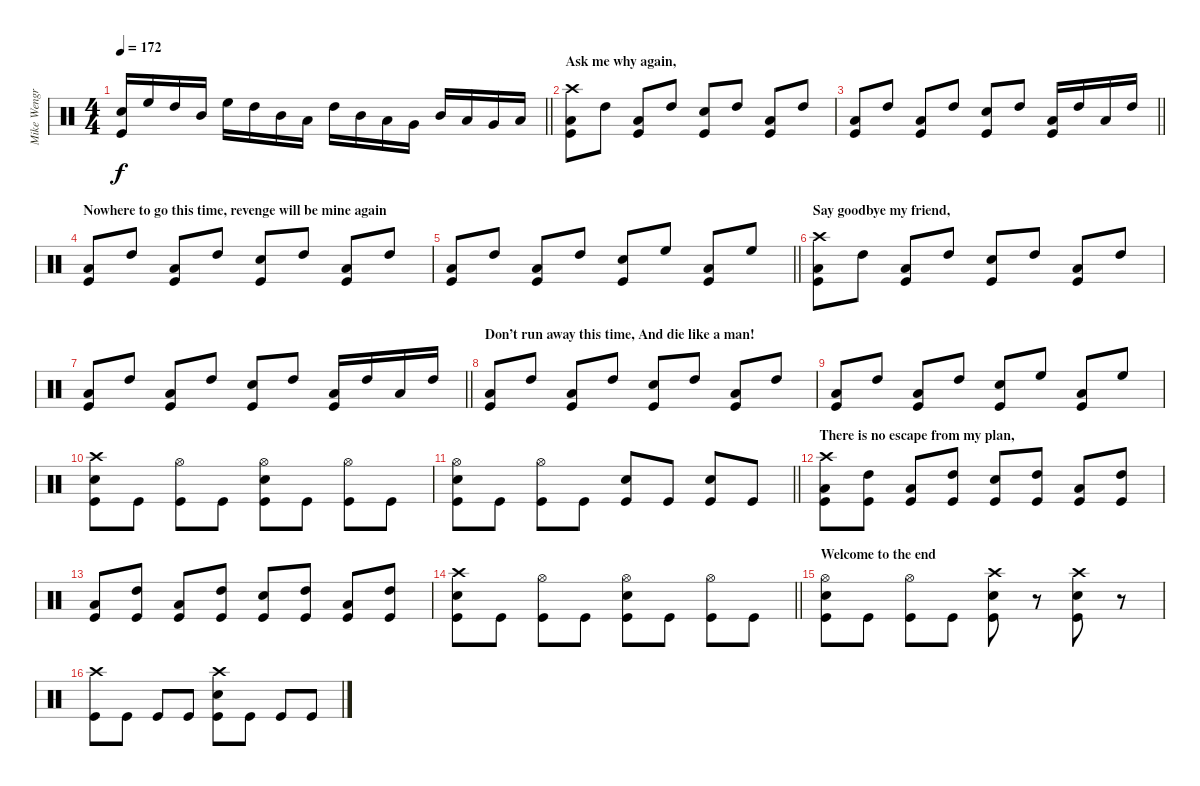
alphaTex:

\track ("Mike Wengren - Drums" "Mike Wengr") {instrument percussion}
\staff {score}
\articulation defaults
\ts (4 4)
\tempo 172
\clef neutral
\barLineRight lightlight
\ks c
("Snare (hit) 2" "Kick (hit)").16{dy f} "High Floor Tom (hit)".16 "High Tom (hit)".16 "Mid Tom (hit)".16 "High Floor Tom (hit)".16 "High Tom (hit)".16 "Mid Tom (hit)".16 "Low Tom (hit)".16 "High Tom (hit)".16 "Mid Tom (hit)".16 "Low Tom (hit)".16 "Very Low Tom (hit)".16 "Mid Tom (hit)".16 "Low Tom (hit)".16 "Very Low Tom (hit)".16 "Low Floor Tom (hit)".16 |
\section ("" "Ask me why again,")
("Crash high (hit)" "Low Tom (hit)" "Kick (hit)").8 "High Tom (hit)".8 ("Low Tom (hit)" "Kick (hit)").8 "High Tom (hit)".8 ("Snare (hit) 2" "Kick (hit)").8 "High Tom (hit)".8 ("Low Tom (hit)" "Kick (hit)").8 "High Tom (hit)".8 |
\barLineRight lightlight
("Low Tom (hit)" "Kick (hit)").8 "High Tom (hit)".8 ("Low Tom (hit)" "Kick (hit)").8 "High Tom (hit)".8 ("Snare (hit) 2" "Kick (hit)").8 "High Tom (hit)".8 ("Low Tom (hit)" "Kick (hit)").16 "High Tom (hit)".16 "Low Tom (hit)".16 "High Tom (hit)".16 |
\section ("" "Nowhere to go this time, revenge will be mine again")
("Low Tom (hit)" "Kick (hit)").8 "High Tom (hit)".8 ("Low Tom (hit)" "Kick (hit)").8 "High Tom (hit)".8 ("Snare (hit) 2" "Kick (hit)").8 "High Tom (hit)".8 ("Low Tom (hit)" "Kick (hit)").8 "High Tom (hit)".8 |
\barLineRight lightlight
("Low Tom (hit)" "Kick (hit)").8 "High Tom (hit)".8 ("Low Tom (hit)" "Kick (hit)").8 "High Tom (hit)".8 ("Snare (hit) 2" "Kick (hit)").8 "High Floor Tom (hit)".8 ("Low Tom (hit)" "Kick (hit)").8 "High Floor Tom (hit)".8 |
\section ("" "Say goodbye my friend,")
("Crash high (hit)" "Low Tom (hit)" "Kick (hit)").8 "High Tom (hit)".8 ("Low Tom (hit)" "Kick (hit)").8 "High Tom (hit)".8 ("Snare (hit) 2" "Kick (hit)").8 "High Tom (hit)".8 ("Low Tom (hit)" "Kick (hit)").8 "High Tom (hit)".8 |
\barLineRight lightlight
("Low Tom (hit)" "Kick (hit)").8 "High Tom (hit)".8 ("Low Tom (hit)" "Kick (hit)").8 "High Tom (hit)".8 ("Snare (hit) 2" "Kick (hit)").8 "High Tom (hit)".8 ("Low Tom (hit)" "Kick (hit)").16 "High Tom (hit)".16 "Low Tom (hit)".16 "High Tom (hit)".16 |
\section ("" "Don’t run away this time, And die like a man!")
("Low Tom (hit)" "Kick (hit)").8 "High Tom (hit)".8 ("Low Tom (hit)" "Kick (hit)").8 "High Tom (hit)".8 ("Snare (hit) 2" "Kick (hit)").8 "High Tom (hit)".8 ("Low Tom (hit)" "Kick (hit)").8 "High Tom (hit)".8 |
("Low Tom (hit)" "Kick (hit)").8 "High Tom (hit)".8 ("Low Tom (hit)" "Kick (hit)").8 "High Tom (hit)".8 ("Snare (hit) 2" "Kick (hit)").8 "High Floor Tom (hit)".8 ("Low Tom (hit)" "Kick (hit)").8 "High Floor Tom (hit)".8 |
("Crash high (hit)" "Snare (hit) 2" "Kick (hit)").8 "Kick (hit)".8 ("Hi-Hat (open)" "Kick (hit)").8 "Kick (hit)".8 ("Hi-Hat (open)" "Snare (hit) 2" "Kick (hit)").8 "Kick (hit)".8 ("Hi-Hat (open)" "Kick (hit)").8 "Kick (hit)".8 |
\barLineRight lightlight
("Hi-Hat (open)" "Snare (hit) 2" "Kick (hit)").8 "Kick (hit)".8 ("Hi-Hat (open)" "Kick (hit)").8 "Kick (hit)".8 ("Snare (hit) 2" "Kick (hit)").8 "Kick (hit)".8 ("Snare (hit) 2" "Kick (hit)").8 "Kick (hit)".8 |
\section ("" "There is no escape from my plan,")
("Crash high (hit)" "Low Tom (hit)" "Kick (hit)").8 ("High Tom (hit)" "Kick (hit)").8 ("Low Tom (hit)" "Kick (hit)").8 ("High Tom (hit)" "Kick (hit)").8 ("Snare (hit) 2" "Kick (hit)").8 ("High Tom (hit)" "Kick (hit)").8 ("Low Tom (hit)" "Kick (hit)").8 ("High Tom (hit)" "Kick (hit)").8 |
("Low Tom (hit)" "Kick (hit)").8 ("High Tom (hit)" "Kick (hit)").8 ("Low Tom (hit)" "Kick (hit)").8 ("High Tom (hit)" "Kick (hit)").8 ("Snare (hit) 2" "Kick (hit)").8 ("High Tom (hit)" "Kick (hit)").8 ("Low Tom (hit)" "Kick (hit)").8 ("High Tom (hit)" "Kick (hit)").8 |
\barLineRight lightlight
("Crash high (hit)" "Snare (hit) 2" "Kick (hit)").8 "Kick (hit)".8 ("Hi-Hat (open)" "Kick (hit)").8 "Kick (hit)".8 ("Hi-Hat (open)" "Snare (hit) 2" "Kick (hit)").8 "Kick (hit)".8 ("Hi-Hat (open)" "Kick (hit)").8 "Kick (hit)".8 |
\section ("" "Welcome to the end")
("Hi-Hat (open)" "Snare (hit) 2" "Kick (hit)").8 "Kick (hit)".8 ("Hi-Hat (open)" "Kick (hit)").8 "Kick (hit)".8 ("Crash high (hit)" "Snare (hit) 2" "Kick (hit)").8 r.8 ("Crash high (hit)" "Snare (hit) 2" "Kick (hit)").8 r.8 |
("Crash high (hit)" "Kick (hit)").8 "Kick (hit)".8 "Kick (hit)".8 "Kick (hit)".8 ("Crash high (hit)" "Snare (hit) 2" "Kick (hit)").8 "Kick (hit)".8 "Kick (hit)".8 "Kick (hit)".8
